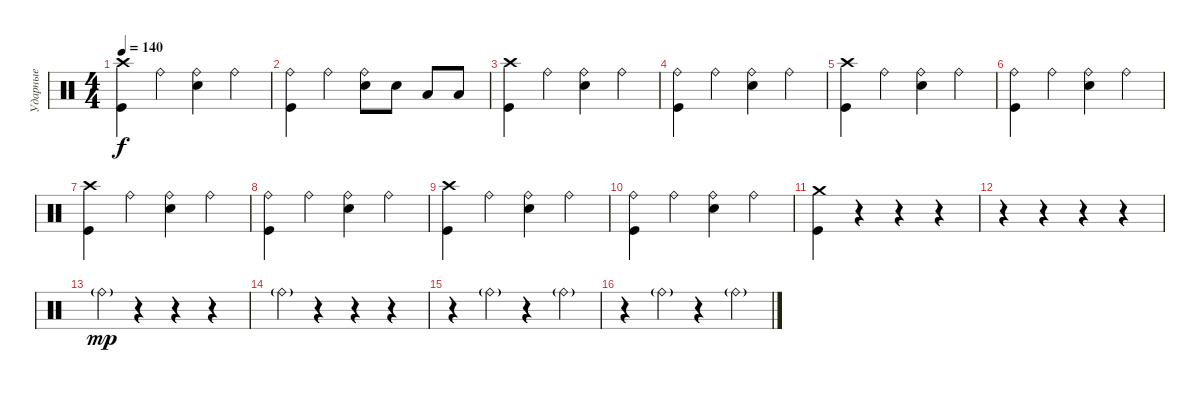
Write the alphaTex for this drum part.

\track ("Ударные" "Ударные") {instrument percussion}
\staff {score}
\articulation defaults
\ts (4 4)
\tempo 140
\clef neutral
\ks c
("Crash high (hit)" "Kick (hit)").4{dy f} "Ride (bell)".4 ("Ride (bell)" "Electric Snare (hit)").4 "Ride (bell)".4 |
("Ride (bell)" "Kick (hit)").4 "Ride (bell)".4 ("Ride (bell)" "Electric Snare (hit)").8 "Electric Snare (hit)".8 "Low Tom (hit)".8 "Low Tom (hit)".8 |
("Crash high (hit)" "Kick (hit)").4 "Ride (bell)".4 ("Ride (bell)" "Electric Snare (hit)").4 "Ride (bell)".4 |
("Ride (bell)" "Kick (hit)").4 "Ride (bell)".4 ("Ride (bell)" "Electric Snare (hit)").4 "Ride (bell)".4 |
("Crash high (hit)" "Kick (hit)").4 "Ride (bell)".4 ("Ride (bell)" "Electric Snare (hit)").4 "Ride (bell)".4 |
("Ride (bell)" "Kick (hit)").4 "Ride (bell)".4 ("Ride (bell)" "Electric Snare (hit)").4 "Ride (bell)".4 |
("Crash high (hit)" "Kick (hit)").4 "Ride (bell)".4 ("Ride (bell)" "Electric Snare (hit)").4 "Ride (bell)".4 |
("Ride (bell)" "Kick (hit)").4 "Ride (bell)".4 ("Ride (bell)" "Electric Snare (hit)").4 "Ride (bell)".4 |
("Crash high (hit)" "Kick (hit)").4 "Ride (bell)".4 ("Ride (bell)" "Electric Snare (hit)").4 "Ride (bell)".4 |
("Ride (bell)" "Kick (hit)").4 "Ride (bell)".4 ("Ride (bell)" "Electric Snare (hit)").4 "Ride (bell)".4 |
("Crash medium (hit)" "Kick (hit)").4 r.4 r.4 r.4 |
r.4 r.4 r.4 r.4 |
"Ride (bell)"{g}.4{dy mp} r.4 r.4 r.4 |
"Ride (bell)"{g}.4 r.4 r.4 r.4 |
r.4 "Ride (bell)"{g}.4 r.4 "Ride (bell)"{g}.4 |
r.4 "Ride (bell)"{g}.4 r.4 "Ride (bell)"{g}.4
